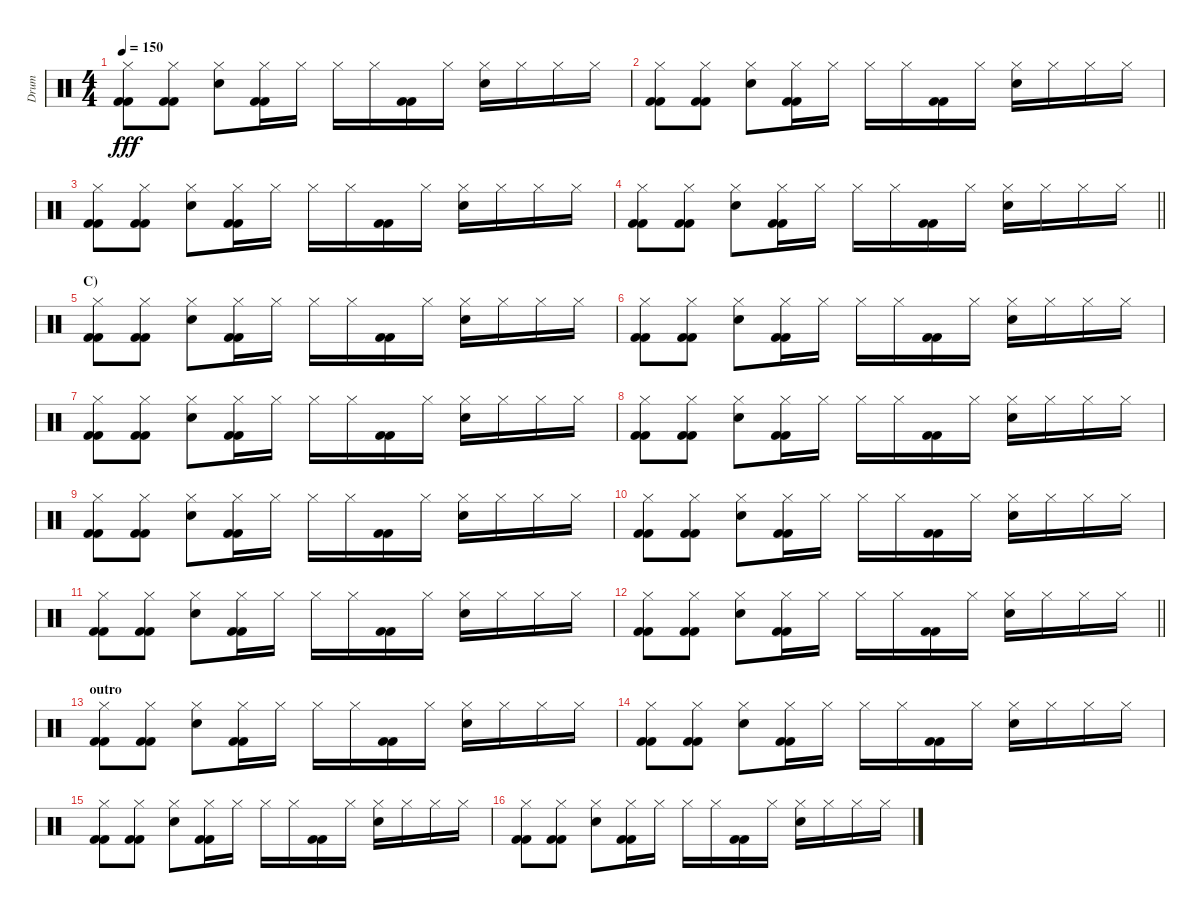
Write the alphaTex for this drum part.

\track ("Drum" "Drum") {instrument percussion}
\staff {score}
\articulation defaults
\ts (4 4)
\tempo 150
\clef neutral
\ks c
("Hi-Hat (closed)" "Kick (hit) 2" "Kick (hit) 2").8{dy fff} ("Hi-Hat (closed)" "Kick (hit) 2" "Kick (hit) 2").8 ("Hi-Hat (closed)" "Electric Snare (hit)").8 ("Hi-Hat (closed)" "Kick (hit) 2" "Kick (hit) 2").16 "Hi-Hat (closed)".16 "Hi-Hat (closed)".16 "Hi-Hat (closed)".16 ("Kick (hit) 2" "Kick (hit) 2").16 "Hi-Hat (closed)".16 ("Hi-Hat (closed)" "Electric Snare (hit)").16 "Hi-Hat (closed)".16 "Hi-Hat (closed)".16 "Hi-Hat (closed)".16 |
("Hi-Hat (closed)" "Kick (hit) 2" "Kick (hit) 2").8 ("Hi-Hat (closed)" "Kick (hit) 2" "Kick (hit) 2").8 ("Hi-Hat (closed)" "Electric Snare (hit)").8 ("Hi-Hat (closed)" "Kick (hit) 2" "Kick (hit) 2").16 "Hi-Hat (closed)".16 "Hi-Hat (closed)".16 "Hi-Hat (closed)".16 ("Kick (hit) 2" "Kick (hit) 2").16 "Hi-Hat (closed)".16 ("Hi-Hat (closed)" "Electric Snare (hit)").16 "Hi-Hat (closed)".16 "Hi-Hat (closed)".16 "Hi-Hat (closed)".16 |
("Hi-Hat (closed)" "Kick (hit) 2" "Kick (hit) 2").8 ("Hi-Hat (closed)" "Kick (hit) 2" "Kick (hit) 2").8 ("Hi-Hat (closed)" "Electric Snare (hit)").8 ("Hi-Hat (closed)" "Kick (hit) 2" "Kick (hit) 2").16 "Hi-Hat (closed)".16 "Hi-Hat (closed)".16 "Hi-Hat (closed)".16 ("Kick (hit) 2" "Kick (hit) 2").16 "Hi-Hat (closed)".16 ("Hi-Hat (closed)" "Electric Snare (hit)").16 "Hi-Hat (closed)".16 "Hi-Hat (closed)".16 "Hi-Hat (closed)".16 |
\barLineRight lightlight
("Hi-Hat (closed)" "Kick (hit) 2" "Kick (hit) 2").8 ("Hi-Hat (closed)" "Kick (hit) 2" "Kick (hit) 2").8 ("Hi-Hat (closed)" "Electric Snare (hit)").8 ("Hi-Hat (closed)" "Kick (hit) 2" "Kick (hit) 2").16 "Hi-Hat (closed)".16 "Hi-Hat (closed)".16 "Hi-Hat (closed)".16 ("Kick (hit) 2" "Kick (hit) 2").16 "Hi-Hat (closed)".16 ("Hi-Hat (closed)" "Electric Snare (hit)").16 "Hi-Hat (closed)".16 "Hi-Hat (closed)".16 "Hi-Hat (closed)".16 |
\section ("" "C)")
("Hi-Hat (closed)" "Kick (hit) 2" "Kick (hit) 2").8 ("Hi-Hat (closed)" "Kick (hit) 2" "Kick (hit) 2").8 ("Hi-Hat (closed)" "Electric Snare (hit)").8 ("Hi-Hat (closed)" "Kick (hit) 2" "Kick (hit) 2").16 "Hi-Hat (closed)".16 "Hi-Hat (closed)".16 "Hi-Hat (closed)".16 ("Kick (hit) 2" "Kick (hit) 2").16 "Hi-Hat (closed)".16 ("Hi-Hat (closed)" "Electric Snare (hit)").16 "Hi-Hat (closed)".16 "Hi-Hat (closed)".16 "Hi-Hat (closed)".16 |
("Hi-Hat (closed)" "Kick (hit) 2" "Kick (hit) 2").8 ("Hi-Hat (closed)" "Kick (hit) 2" "Kick (hit) 2").8 ("Hi-Hat (closed)" "Electric Snare (hit)").8 ("Hi-Hat (closed)" "Kick (hit) 2" "Kick (hit) 2").16 "Hi-Hat (closed)".16 "Hi-Hat (closed)".16 "Hi-Hat (closed)".16 ("Kick (hit) 2" "Kick (hit) 2").16 "Hi-Hat (closed)".16 ("Hi-Hat (closed)" "Electric Snare (hit)").16 "Hi-Hat (closed)".16 "Hi-Hat (closed)".16 "Hi-Hat (closed)".16 |
("Hi-Hat (closed)" "Kick (hit) 2" "Kick (hit) 2").8 ("Hi-Hat (closed)" "Kick (hit) 2" "Kick (hit) 2").8 ("Hi-Hat (closed)" "Electric Snare (hit)").8 ("Hi-Hat (closed)" "Kick (hit) 2" "Kick (hit) 2").16 "Hi-Hat (closed)".16 "Hi-Hat (closed)".16 "Hi-Hat (closed)".16 ("Kick (hit) 2" "Kick (hit) 2").16 "Hi-Hat (closed)".16 ("Hi-Hat (closed)" "Electric Snare (hit)").16 "Hi-Hat (closed)".16 "Hi-Hat (closed)".16 "Hi-Hat (closed)".16 |
("Hi-Hat (closed)" "Kick (hit) 2" "Kick (hit) 2").8 ("Hi-Hat (closed)" "Kick (hit) 2" "Kick (hit) 2").8 ("Hi-Hat (closed)" "Electric Snare (hit)").8 ("Hi-Hat (closed)" "Kick (hit) 2" "Kick (hit) 2").16 "Hi-Hat (closed)".16 "Hi-Hat (closed)".16 "Hi-Hat (closed)".16 ("Kick (hit) 2" "Kick (hit) 2").16 "Hi-Hat (closed)".16 ("Hi-Hat (closed)" "Electric Snare (hit)").16 "Hi-Hat (closed)".16 "Hi-Hat (closed)".16 "Hi-Hat (closed)".16 |
("Hi-Hat (closed)" "Kick (hit) 2" "Kick (hit) 2").8 ("Hi-Hat (closed)" "Kick (hit) 2" "Kick (hit) 2").8 ("Hi-Hat (closed)" "Electric Snare (hit)").8 ("Hi-Hat (closed)" "Kick (hit) 2" "Kick (hit) 2").16 "Hi-Hat (closed)".16 "Hi-Hat (closed)".16 "Hi-Hat (closed)".16 ("Kick (hit) 2" "Kick (hit) 2").16 "Hi-Hat (closed)".16 ("Hi-Hat (closed)" "Electric Snare (hit)").16 "Hi-Hat (closed)".16 "Hi-Hat (closed)".16 "Hi-Hat (closed)".16 |
("Hi-Hat (closed)" "Kick (hit) 2" "Kick (hit) 2").8 ("Hi-Hat (closed)" "Kick (hit) 2" "Kick (hit) 2").8 ("Hi-Hat (closed)" "Electric Snare (hit)").8 ("Hi-Hat (closed)" "Kick (hit) 2" "Kick (hit) 2").16 "Hi-Hat (closed)".16 "Hi-Hat (closed)".16 "Hi-Hat (closed)".16 ("Kick (hit) 2" "Kick (hit) 2").16 "Hi-Hat (closed)".16 ("Hi-Hat (closed)" "Electric Snare (hit)").16 "Hi-Hat (closed)".16 "Hi-Hat (closed)".16 "Hi-Hat (closed)".16 |
("Hi-Hat (closed)" "Kick (hit) 2" "Kick (hit) 2").8 ("Hi-Hat (closed)" "Kick (hit) 2" "Kick (hit) 2").8 ("Hi-Hat (closed)" "Electric Snare (hit)").8 ("Hi-Hat (closed)" "Kick (hit) 2" "Kick (hit) 2").16 "Hi-Hat (closed)".16 "Hi-Hat (closed)".16 "Hi-Hat (closed)".16 ("Kick (hit) 2" "Kick (hit) 2").16 "Hi-Hat (closed)".16 ("Hi-Hat (closed)" "Electric Snare (hit)").16 "Hi-Hat (closed)".16 "Hi-Hat (closed)".16 "Hi-Hat (closed)".16 |
\barLineRight lightlight
("Hi-Hat (closed)" "Kick (hit) 2" "Kick (hit) 2").8 ("Hi-Hat (closed)" "Kick (hit) 2" "Kick (hit) 2").8 ("Hi-Hat (closed)" "Electric Snare (hit)").8 ("Hi-Hat (closed)" "Kick (hit) 2" "Kick (hit) 2").16 "Hi-Hat (closed)".16 "Hi-Hat (closed)".16 "Hi-Hat (closed)".16 ("Kick (hit) 2" "Kick (hit) 2").16 "Hi-Hat (closed)".16 ("Hi-Hat (closed)" "Electric Snare (hit)").16 "Hi-Hat (closed)".16 "Hi-Hat (closed)".16 "Hi-Hat (closed)".16 |
\section ("" "outro")
("Hi-Hat (closed)" "Kick (hit) 2" "Kick (hit) 2").8 ("Hi-Hat (closed)" "Kick (hit) 2" "Kick (hit) 2").8 ("Hi-Hat (closed)" "Electric Snare (hit)").8 ("Hi-Hat (closed)" "Kick (hit) 2" "Kick (hit) 2").16 "Hi-Hat (closed)".16 "Hi-Hat (closed)".16 "Hi-Hat (closed)".16 ("Kick (hit) 2" "Kick (hit) 2").16 "Hi-Hat (closed)".16 ("Hi-Hat (closed)" "Electric Snare (hit)").16 "Hi-Hat (closed)".16 "Hi-Hat (closed)".16 "Hi-Hat (closed)".16 |
("Hi-Hat (closed)" "Kick (hit) 2" "Kick (hit) 2").8 ("Hi-Hat (closed)" "Kick (hit) 2" "Kick (hit) 2").8 ("Hi-Hat (closed)" "Electric Snare (hit)").8 ("Hi-Hat (closed)" "Kick (hit) 2" "Kick (hit) 2").16 "Hi-Hat (closed)".16 "Hi-Hat (closed)".16 "Hi-Hat (closed)".16 ("Kick (hit) 2" "Kick (hit) 2").16 "Hi-Hat (closed)".16 ("Hi-Hat (closed)" "Electric Snare (hit)").16 "Hi-Hat (closed)".16 "Hi-Hat (closed)".16 "Hi-Hat (closed)".16 |
("Hi-Hat (closed)" "Kick (hit) 2" "Kick (hit) 2").8 ("Hi-Hat (closed)" "Kick (hit) 2" "Kick (hit) 2").8 ("Hi-Hat (closed)" "Electric Snare (hit)").8 ("Hi-Hat (closed)" "Kick (hit) 2" "Kick (hit) 2").16 "Hi-Hat (closed)".16 "Hi-Hat (closed)".16 "Hi-Hat (closed)".16 ("Kick (hit) 2" "Kick (hit) 2").16 "Hi-Hat (closed)".16 ("Hi-Hat (closed)" "Electric Snare (hit)").16 "Hi-Hat (closed)".16 "Hi-Hat (closed)".16 "Hi-Hat (closed)".16 |
("Hi-Hat (closed)" "Kick (hit) 2" "Kick (hit) 2").8 ("Hi-Hat (closed)" "Kick (hit) 2" "Kick (hit) 2").8 ("Hi-Hat (closed)" "Electric Snare (hit)").8 ("Hi-Hat (closed)" "Kick (hit) 2" "Kick (hit) 2").16 "Hi-Hat (closed)".16 "Hi-Hat (closed)".16 "Hi-Hat (closed)".16 ("Kick (hit) 2" "Kick (hit) 2").16 "Hi-Hat (closed)".16 ("Hi-Hat (closed)" "Electric Snare (hit)").16 "Hi-Hat (closed)".16 "Hi-Hat (closed)".16 "Hi-Hat (closed)".16
